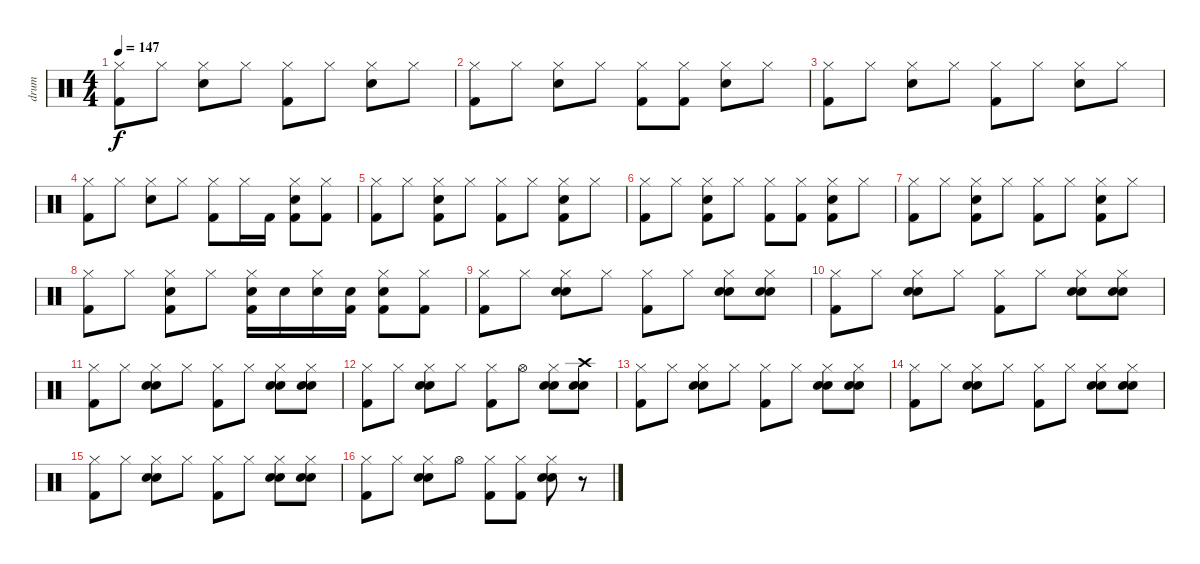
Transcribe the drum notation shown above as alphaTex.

\track ("drum" "drum") {instrument percussion}
\staff {score}
\articulation defaults
\ts (4 4)
\tempo 147
\clef neutral
\ks c
("Hi-Hat (closed)" "Kick (hit) 2").8{dy f} "Hi-Hat (closed)".8 ("Hi-Hat (closed)" "Electric Snare (hit)").8 "Hi-Hat (closed)".8 ("Hi-Hat (closed)" "Kick (hit) 2").8 "Hi-Hat (closed)".8 ("Hi-Hat (closed)" "Electric Snare (hit)").8 "Hi-Hat (closed)".8 |
("Hi-Hat (closed)" "Kick (hit) 2").8 "Hi-Hat (closed)".8 ("Hi-Hat (closed)" "Electric Snare (hit)").8 "Hi-Hat (closed)".8 ("Hi-Hat (closed)" "Kick (hit) 2").8 ("Hi-Hat (closed)" "Kick (hit) 2").8 ("Hi-Hat (closed)" "Electric Snare (hit)").8 "Hi-Hat (closed)".8 |
("Hi-Hat (closed)" "Kick (hit) 2").8 "Hi-Hat (closed)".8 ("Hi-Hat (closed)" "Electric Snare (hit)").8 "Hi-Hat (closed)".8 ("Hi-Hat (closed)" "Kick (hit) 2").8 "Hi-Hat (closed)".8 ("Hi-Hat (closed)" "Electric Snare (hit)").8 "Hi-Hat (closed)".8 |
("Hi-Hat (closed)" "Kick (hit) 2").8 "Hi-Hat (closed)".8 ("Hi-Hat (closed)" "Electric Snare (hit)").8 "Hi-Hat (closed)".8 ("Hi-Hat (closed)" "Kick (hit) 2").8 "Hi-Hat (closed)".16 "Kick (hit) 2".16 ("Hi-Hat (closed)" "Electric Snare (hit)" "Kick (hit) 2").8 ("Hi-Hat (closed)" "Kick (hit) 2").8 |
("Hi-Hat (closed)" "Kick (hit) 2").8 "Hi-Hat (closed)".8 ("Hi-Hat (closed)" "Electric Snare (hit)" "Kick (hit) 2").8 "Hi-Hat (closed)".8 ("Hi-Hat (closed)" "Kick (hit) 2").8 "Hi-Hat (closed)".8 ("Hi-Hat (closed)" "Electric Snare (hit)" "Kick (hit) 2").8 "Hi-Hat (closed)".8 |
("Hi-Hat (closed)" "Kick (hit) 2").8 "Hi-Hat (closed)".8 ("Hi-Hat (closed)" "Electric Snare (hit)" "Kick (hit) 2").8 "Hi-Hat (closed)".8 ("Hi-Hat (closed)" "Kick (hit) 2").8 ("Hi-Hat (closed)" "Kick (hit) 2").8 ("Hi-Hat (closed)" "Electric Snare (hit)" "Kick (hit) 2").8 "Hi-Hat (closed)".8 |
("Hi-Hat (closed)" "Kick (hit) 2").8 "Hi-Hat (closed)".8 ("Hi-Hat (closed)" "Electric Snare (hit)" "Kick (hit) 2").8 "Hi-Hat (closed)".8 ("Hi-Hat (closed)" "Kick (hit) 2").8 "Hi-Hat (closed)".8 ("Hi-Hat (closed)" "Electric Snare (hit)" "Kick (hit) 2").8 "Hi-Hat (closed)".8 |
("Hi-Hat (closed)" "Kick (hit) 2").8 "Hi-Hat (closed)".8 ("Hi-Hat (closed)" "Electric Snare (hit)" "Kick (hit) 2").8 "Hi-Hat (closed)".8 ("Hi-Hat (closed)" "Electric Snare (hit)" "Kick (hit) 2").16 "Electric Snare (hit)".16 ("Hi-Hat (closed)" "Electric Snare (hit)").16 ("Electric Snare (hit)" "Kick (hit) 2").16 ("Hi-Hat (closed)" "Electric Snare (hit)" "Kick (hit) 2").8 ("Hi-Hat (closed)" "Kick (hit) 2").8 |
("Hi-Hat (closed)" "Kick (hit) 2").8 "Hi-Hat (closed)".8 ("Hi-Hat (closed)" "Hand Clap (hit)" "Electric Snare (hit)").8 "Hi-Hat (closed)".8 ("Hi-Hat (closed)" "Kick (hit) 2").8 "Hi-Hat (closed)".8 ("Hi-Hat (closed)" "Hand Clap (hit)" "Electric Snare (hit)").8 ("Hi-Hat (closed)" "Hand Clap (hit)" "Electric Snare (hit)").8 |
("Hi-Hat (closed)" "Kick (hit) 2").8 "Hi-Hat (closed)".8 ("Hi-Hat (closed)" "Hand Clap (hit)" "Electric Snare (hit)").8 "Hi-Hat (closed)".8 ("Hi-Hat (closed)" "Kick (hit) 2").8 "Hi-Hat (closed)".8 ("Hi-Hat (closed)" "Hand Clap (hit)" "Electric Snare (hit)").8 ("Hi-Hat (closed)" "Hand Clap (hit)" "Electric Snare (hit)").8 |
("Hi-Hat (closed)" "Kick (hit) 2").8 "Hi-Hat (closed)".8 ("Hi-Hat (closed)" "Hand Clap (hit)" "Electric Snare (hit)").8 "Hi-Hat (closed)".8 ("Hi-Hat (closed)" "Kick (hit) 2").8 "Hi-Hat (closed)".8 ("Hi-Hat (closed)" "Hand Clap (hit)" "Electric Snare (hit)").8 ("Hi-Hat (closed)" "Hand Clap (hit)" "Electric Snare (hit)").8 |
("Hi-Hat (closed)" "Kick (hit) 2").8 "Hi-Hat (closed)".8 ("Hi-Hat (closed)" "Hand Clap (hit)" "Electric Snare (hit)").8 "Hi-Hat (closed)".8 ("Hi-Hat (closed)" "Kick (hit) 2").8 "Hi-Hat (open)".8 ("Hi-Hat (closed)" "Hand Clap (hit)" "Electric Snare (hit)").8 ("Crash high (hit)" "Hand Clap (hit)" "Electric Snare (hit)").8 |
("Hi-Hat (closed)" "Kick (hit) 2").8 "Hi-Hat (closed)".8 ("Hi-Hat (closed)" "Hand Clap (hit)" "Electric Snare (hit)").8 "Hi-Hat (closed)".8 ("Hi-Hat (closed)" "Kick (hit) 2").8 "Hi-Hat (closed)".8 ("Hi-Hat (closed)" "Hand Clap (hit)" "Electric Snare (hit)").8 ("Hi-Hat (closed)" "Hand Clap (hit)" "Electric Snare (hit)").8 |
("Hi-Hat (closed)" "Kick (hit) 2").8 "Hi-Hat (closed)".8 ("Hi-Hat (closed)" "Hand Clap (hit)" "Electric Snare (hit)").8 "Hi-Hat (closed)".8 ("Hi-Hat (closed)" "Kick (hit) 2").8 "Hi-Hat (closed)".8 ("Hi-Hat (closed)" "Hand Clap (hit)" "Electric Snare (hit)").8 ("Hi-Hat (closed)" "Hand Clap (hit)" "Electric Snare (hit)").8 |
("Hi-Hat (closed)" "Kick (hit) 2").8 "Hi-Hat (closed)".8 ("Hi-Hat (closed)" "Hand Clap (hit)" "Electric Snare (hit)").8 "Hi-Hat (closed)".8 ("Hi-Hat (closed)" "Kick (hit) 2").8 "Hi-Hat (closed)".8 ("Hi-Hat (closed)" "Hand Clap (hit)" "Electric Snare (hit)").8 ("Hi-Hat (closed)" "Hand Clap (hit)" "Electric Snare (hit)").8 |
("Hi-Hat (closed)" "Kick (hit) 2").8 "Hi-Hat (closed)".8 ("Hi-Hat (closed)" "Hand Clap (hit)" "Electric Snare (hit)").8 "Hi-Hat (open)".8 ("Hi-Hat (closed)" "Kick (hit) 2").8 ("Hi-Hat (closed)" "Kick (hit) 2").8 ("Hi-Hat (closed)" "Hand Clap (hit)" "Electric Snare (hit)").8 r.8
